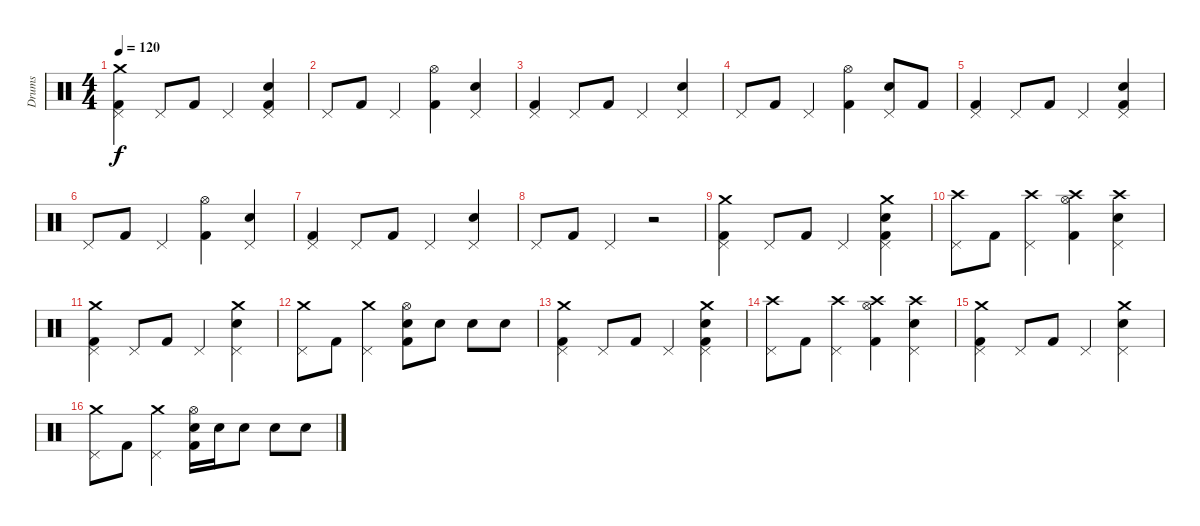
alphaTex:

\track ("Drums" "Drums") {instrument percussion}
\staff {score}
\articulation defaults
\ts (4 4)
\tempo 120
\clef neutral
\ks c
("Crash medium (hit)" "Pedal Hi-Hat (hit)" "Kick (hit) 2").4{dy f} "Pedal Hi-Hat (hit)".8 "Kick (hit) 2".8 "Pedal Hi-Hat (hit)".4 ("Pedal Hi-Hat (hit)" "Snare (hit) 2" "Kick (hit) 2").4 |
"Pedal Hi-Hat (hit)".8 "Kick (hit) 2".8 "Pedal Hi-Hat (hit)".4 ("Hi-Hat (open)" "Kick (hit) 2").4 ("Pedal Hi-Hat (hit)" "Snare (hit) 2").4 |
("Pedal Hi-Hat (hit)" "Kick (hit) 2").4 "Pedal Hi-Hat (hit)".8 "Kick (hit) 2".8 "Pedal Hi-Hat (hit)".4 ("Pedal Hi-Hat (hit)" "Snare (hit) 2").4 |
"Pedal Hi-Hat (hit)".8 "Kick (hit) 2".8 "Pedal Hi-Hat (hit)".4 ("Hi-Hat (open)" "Kick (hit) 2").4 ("Pedal Hi-Hat (hit)" "Snare (hit) 2").8 "Kick (hit) 2".8 |
("Pedal Hi-Hat (hit)" "Kick (hit) 2").4 "Pedal Hi-Hat (hit)".8 "Kick (hit) 2".8 "Pedal Hi-Hat (hit)".4 ("Pedal Hi-Hat (hit)" "Snare (hit) 2" "Kick (hit) 2").4 |
"Pedal Hi-Hat (hit)".8 "Kick (hit) 2".8 "Pedal Hi-Hat (hit)".4 ("Hi-Hat (open)" "Kick (hit) 2").4 ("Pedal Hi-Hat (hit)" "Snare (hit) 2").4 |
("Pedal Hi-Hat (hit)" "Kick (hit) 2").4 "Pedal Hi-Hat (hit)".8 "Kick (hit) 2".8 "Pedal Hi-Hat (hit)".4 ("Pedal Hi-Hat (hit)" "Snare (hit) 2").4 |
"Pedal Hi-Hat (hit)".8 "Kick (hit) 2".8 "Pedal Hi-Hat (hit)".4 r.2 |
("Crash medium (hit)" "Pedal Hi-Hat (hit)" "Kick (hit) 2").4 "Pedal Hi-Hat (hit)".8 "Kick (hit) 2".8 "Pedal Hi-Hat (hit)".4 ("Crash medium (hit)" "Pedal Hi-Hat (hit)" "Snare (hit) 2" "Kick (hit) 2").4 |
("Crash high (hit)" "Pedal Hi-Hat (hit)").8 "Kick (hit) 2".8 ("Crash high (hit)" "Pedal Hi-Hat (hit)").4 ("Crash high (hit)" "Hi-Hat (open)" "Kick (hit) 2").4 ("Crash high (hit)" "Pedal Hi-Hat (hit)" "Snare (hit) 2").4 |
("Crash medium (hit)" "Pedal Hi-Hat (hit)" "Kick (hit) 2").4 "Pedal Hi-Hat (hit)".8 "Kick (hit) 2".8 "Pedal Hi-Hat (hit)".4 ("Crash medium (hit)" "Pedal Hi-Hat (hit)" "Snare (hit) 2").4 |
("Crash medium (hit)" "Pedal Hi-Hat (hit)").8 "Kick (hit) 2".8 ("Crash medium (hit)" "Pedal Hi-Hat (hit)").4 ("Hi-Hat (open)" "Snare (hit) 2" "Kick (hit) 2").8 "Snare (hit) 2".8 "Snare (hit) 2".8 "Snare (hit) 2".8 |
("Crash medium (hit)" "Pedal Hi-Hat (hit)" "Kick (hit) 2").4 "Pedal Hi-Hat (hit)".8 "Kick (hit) 2".8 "Pedal Hi-Hat (hit)".4 ("Crash medium (hit)" "Pedal Hi-Hat (hit)" "Snare (hit) 2" "Kick (hit) 2").4 |
("Crash high (hit)" "Pedal Hi-Hat (hit)").8 "Kick (hit) 2".8 ("Crash high (hit)" "Pedal Hi-Hat (hit)").4 ("Crash high (hit)" "Hi-Hat (open)" "Kick (hit) 2").4 ("Crash high (hit)" "Pedal Hi-Hat (hit)" "Snare (hit) 2").4 |
("Crash medium (hit)" "Pedal Hi-Hat (hit)" "Kick (hit) 2").4 "Pedal Hi-Hat (hit)".8 "Kick (hit) 2".8 "Pedal Hi-Hat (hit)".4 ("Crash medium (hit)" "Pedal Hi-Hat (hit)" "Snare (hit) 2").4 |
("Crash medium (hit)" "Pedal Hi-Hat (hit)").8 "Kick (hit) 2".8 ("Crash medium (hit)" "Pedal Hi-Hat (hit)").4 ("Hi-Hat (open)" "Snare (hit) 2" "Kick (hit) 2").16 "Snare (hit) 2".16 "Snare (hit) 2".8 "Snare (hit) 2".8 "Snare (hit) 2".8
